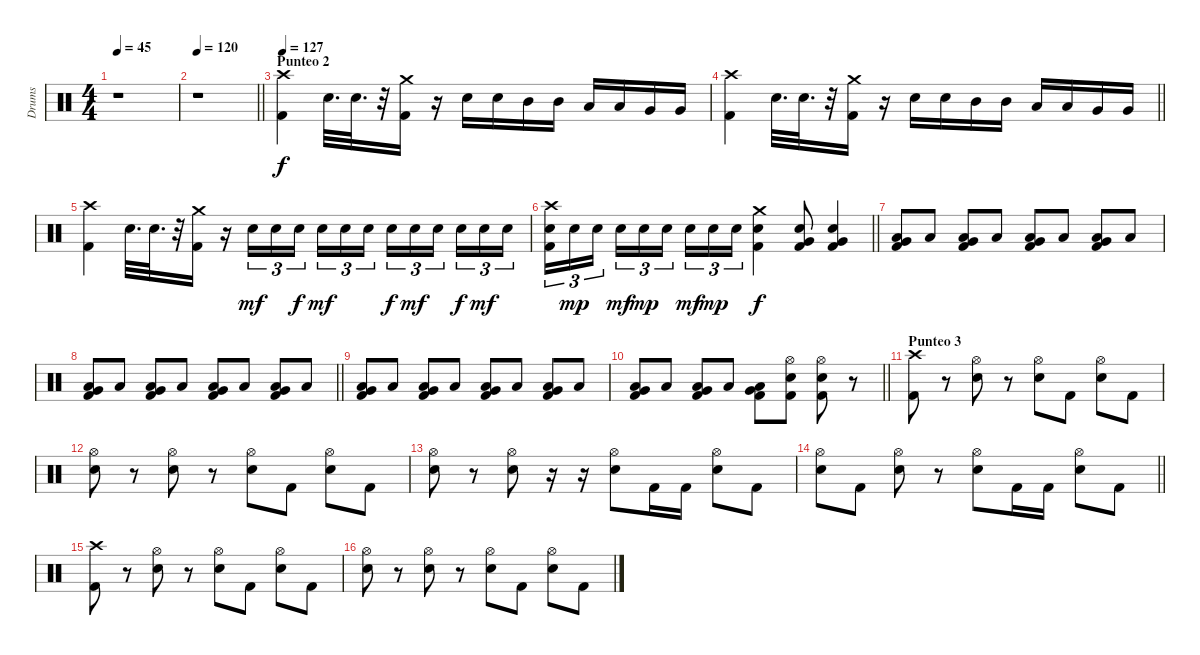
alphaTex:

\track ("Drums" "Drums") {instrument percussion}
\staff {score}
\articulation defaults
\ts (4 4)
\tempo 45
\clef neutral
\ks c
r.1{dy f} |
\tempo 120
\barLineRight lightlight
r.1 |
\section ("" "Punteo 2")
\tempo 127
("Crash high (hit)" "Kick (hit) 2").4 "Snare (hit) 2".32{d} "Snare (hit) 2".32{d} r.32 ("Crash medium (hit)" "Kick (hit) 2").16 r.16 "Snare (hit) 2".16 "Snare (hit) 2".16 "Mid Tom (hit)".16 "Mid Tom (hit)".16 "Low Tom (hit)".16 "Low Tom (hit)".16 "Very Low Tom (hit)".16 "Very Low Tom (hit)".16 |
\barLineRight lightlight
("Crash high (hit)" "Kick (hit) 2").4 "Snare (hit) 2".32{d} "Snare (hit) 2".32{d} r.32 ("Crash medium (hit)" "Kick (hit) 2").16 r.16 "Snare (hit) 2".16 "Snare (hit) 2".16 "Mid Tom (hit)".16 "Mid Tom (hit)".16 "Low Tom (hit)".16 "Low Tom (hit)".16 "Very Low Tom (hit)".16 "Very Low Tom (hit)".16 |
("Crash high (hit)" "Kick (hit) 2").4 "Snare (hit) 2".32{d} "Snare (hit) 2".32{d} r.32 ("Crash medium (hit)" "Kick (hit) 2").16 r.16 "Snare (hit) 2".16{tu (3 2) dy mf} "Snare (hit) 2".16{tu (3 2)} "Snare (hit) 2".16{tu (3 2) dy f beam splitsecondary} "Snare (hit) 2".16{tu (3 2) dy mf} "Snare (hit) 2".16{tu (3 2)} "Snare (hit) 2".16{tu (3 2)} "Snare (hit) 2".16{tu (3 2) dy f} "Snare (hit) 2".16{tu (3 2) dy mf} "Snare (hit) 2".16{tu (3 2) beam splitsecondary} "Snare (hit) 2".16{tu (3 2) dy f} "Snare (hit) 2".16{tu (3 2) dy mf} "Snare (hit) 2".16{tu (3 2)} |
\barLineRight lightlight
("Crash high (hit)" "Snare (hit) 2" "Kick (hit) 2").16{tu (3 2)} "Snare (hit) 2".16{tu (3 2) dy mp} "Snare (hit) 2".16{tu (3 2) beam splitsecondary} "Snare (hit) 2".16{tu (3 2) dy mf} "Snare (hit) 2".16{tu (3 2) dy mp} "Snare (hit) 2".16{tu (3 2)} "Snare (hit) 2".16{tu (3 2) dy mf} "Snare (hit) 2".16{tu (3 2) dy mp} "Snare (hit) 2".16{tu (3 2)} ("Crash medium (hit)" "Snare (hit) 2" "Kick (hit) 2").4{dy f} ("Snare (hit) 2" "Very Low Tom (hit)" "Kick (hit) 2").8 ("Snare (hit) 2" "Very Low Tom (hit)" "Kick (hit) 2").4 |
("Very Low Tom (hit)" "Low Floor Tom (hit)" "Kick (hit) 2").8 "Low Floor Tom (hit)".8 ("Very Low Tom (hit)" "Low Floor Tom (hit)" "Kick (hit) 2").8 "Low Floor Tom (hit)".8 ("Very Low Tom (hit)" "Low Floor Tom (hit)" "Kick (hit) 2").8 "Low Floor Tom (hit)".8 ("Very Low Tom (hit)" "Low Floor Tom (hit)" "Kick (hit) 2").8 "Low Floor Tom (hit)".8 |
\barLineRight lightlight
("Very Low Tom (hit)" "Low Floor Tom (hit)" "Kick (hit) 2").8 "Low Floor Tom (hit)".8 ("Very Low Tom (hit)" "Low Floor Tom (hit)" "Kick (hit) 2").8 "Low Floor Tom (hit)".8 ("Very Low Tom (hit)" "Low Floor Tom (hit)" "Kick (hit) 2").8 "Low Floor Tom (hit)".8 ("Very Low Tom (hit)" "Low Floor Tom (hit)" "Kick (hit) 2").8 "Low Floor Tom (hit)".8 |
("Very Low Tom (hit)" "Low Floor Tom (hit)" "Kick (hit) 2").8 "Low Floor Tom (hit)".8 ("Very Low Tom (hit)" "Low Floor Tom (hit)" "Kick (hit) 2").8 "Low Floor Tom (hit)".8 ("Very Low Tom (hit)" "Low Floor Tom (hit)" "Kick (hit) 2").8 "Low Floor Tom (hit)".8 ("Very Low Tom (hit)" "Low Floor Tom (hit)" "Kick (hit) 2").8 "Low Floor Tom (hit)".8 |
\barLineRight lightlight
("Very Low Tom (hit)" "Low Floor Tom (hit)" "Kick (hit) 2").8 "Low Floor Tom (hit)".8 ("Very Low Tom (hit)" "Low Floor Tom (hit)" "Kick (hit) 2").8 "Low Floor Tom (hit)".8 ("Very Low Tom (hit)" "Low Floor Tom (hit)" "Kick (hit) 2").8 ("Hi-Hat (open)" "Snare (hit) 2" "Kick (hit) 2").8 ("Hi-Hat (open)" "Snare (hit) 2" "Kick (hit) 2").8 r.8 |
\section ("" "Punteo 3")
("Crash high (hit)" "Kick (hit) 2").8 r.8 ("Hi-Hat (open)" "Snare (hit) 2").8 r.8 ("Hi-Hat (open)" "Snare (hit) 2").8 "Kick (hit) 2".8 ("Hi-Hat (open)" "Snare (hit) 2").8 "Kick (hit) 2".8 |
("Hi-Hat (open)" "Snare (hit) 2").8 r.8 ("Hi-Hat (open)" "Snare (hit) 2").8 r.8 ("Hi-Hat (open)" "Snare (hit) 2").8 "Kick (hit) 2".8 ("Hi-Hat (open)" "Snare (hit) 2").8 "Kick (hit) 2".8 |
("Hi-Hat (open)" "Snare (hit) 2").8 r.8 ("Hi-Hat (open)" "Snare (hit) 2").8 r.16 r.16 ("Hi-Hat (open)" "Snare (hit) 2").8 "Kick (hit) 2".16 "Kick (hit) 2".16 ("Hi-Hat (open)" "Snare (hit) 2").8 "Kick (hit) 2".8 |
\barLineRight lightlight
("Hi-Hat (open)" "Snare (hit) 2").8 "Kick (hit) 2".8 ("Hi-Hat (open)" "Snare (hit) 2").8 r.8 ("Hi-Hat (open)" "Snare (hit) 2").8 "Kick (hit) 2".16 "Kick (hit) 2".16 ("Hi-Hat (open)" "Snare (hit) 2").8 "Kick (hit) 2".8 |
("Crash high (hit)" "Kick (hit) 2").8 r.8 ("Hi-Hat (open)" "Snare (hit) 2").8 r.8 ("Hi-Hat (open)" "Snare (hit) 2").8 "Kick (hit) 2".8 ("Hi-Hat (open)" "Snare (hit) 2").8 "Kick (hit) 2".8 |
("Hi-Hat (open)" "Snare (hit) 2").8 r.8 ("Hi-Hat (open)" "Snare (hit) 2").8 r.8 ("Hi-Hat (open)" "Snare (hit) 2").8 "Kick (hit) 2".8 ("Hi-Hat (open)" "Snare (hit) 2").8 "Kick (hit) 2".8
